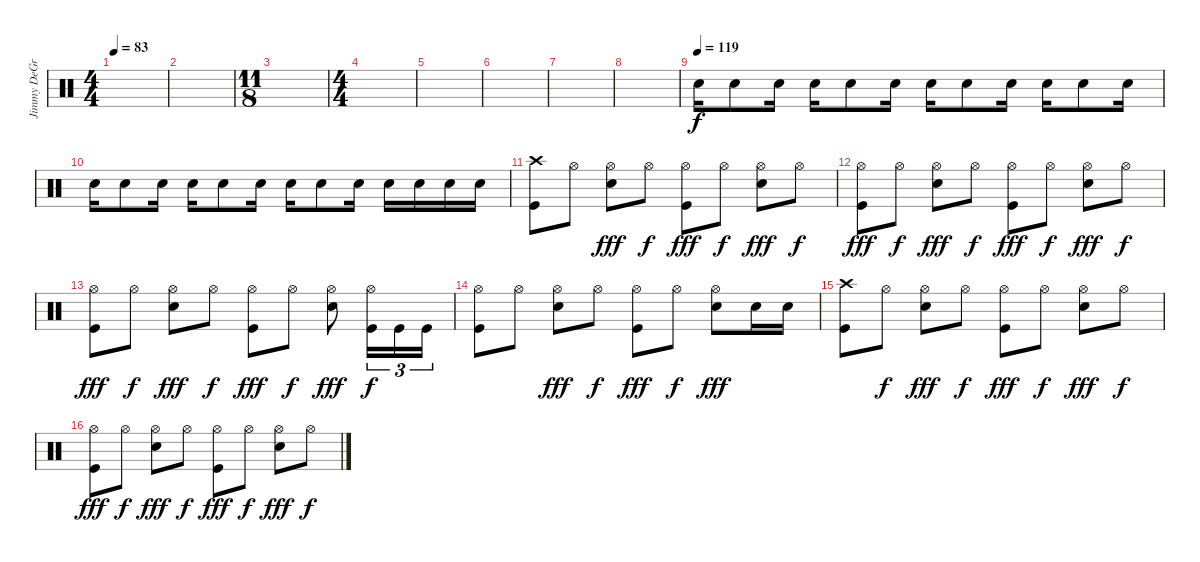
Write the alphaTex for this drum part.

\track ("Jimmy DeGrasso" "Jimmy DeGr") {instrument percussion}
\staff {score}
\articulation defaults
\ts (4 4)
\tempo 83
\clef neutral
\ks c
|
|
\ts (11 8)
|
\ts (4 4)
|
|
|
|
|
\tempo (119)
"Electric Snare (hit)".16 "Electric Snare (hit)".8 "Electric Snare (hit)".16 "Electric Snare (hit)".16 "Electric Snare (hit)".8 "Electric Snare (hit)".16 "Electric Snare (hit)".16 "Electric Snare (hit)".8 "Electric Snare (hit)".16 "Electric Snare (hit)".16 "Electric Snare (hit)".8 "Electric Snare (hit)".16 |
"Electric Snare (hit)".16 "Electric Snare (hit)".8 "Electric Snare (hit)".16 "Electric Snare (hit)".16 "Electric Snare (hit)".8 "Electric Snare (hit)".16 "Electric Snare (hit)".16 "Electric Snare (hit)".8 "Electric Snare (hit)".16 "Electric Snare (hit)".16 "Electric Snare (hit)".16 "Electric Snare (hit)".16 "Electric Snare (hit)".16 |
("Kick (hit)" "Crash high (hit)").8 "Hi-Hat (open)".8{dy f} ("Electric Snare (hit)" "Hi-Hat (open)").8{dy fff} "Hi-Hat (open)".8{dy f} ("Kick (hit)" "Hi-Hat (open)").8{dy fff} "Hi-Hat (open)".8{dy f} ("Electric Snare (hit)" "Hi-Hat (open)").8{dy fff} "Hi-Hat (open)".8{dy f} |
("Kick (hit)" "Hi-Hat (open)").8{dy fff} "Hi-Hat (open)".8{dy f} ("Electric Snare (hit)" "Hi-Hat (open)").8{dy fff} "Hi-Hat (open)".8{dy f} ("Kick (hit)" "Hi-Hat (open)").8{dy fff} "Hi-Hat (open)".8{dy f} ("Electric Snare (hit)" "Hi-Hat (open)").8{dy fff} "Hi-Hat (open)".8{dy f} |
("Kick (hit)" "Hi-Hat (open)").8{dy fff} "Hi-Hat (open)".8{dy f} ("Electric Snare (hit)" "Hi-Hat (open)").8{dy fff} "Hi-Hat (open)".8{dy f} ("Kick (hit)" "Hi-Hat (open)").8{dy fff} "Hi-Hat (open)".8{dy f} ("Electric Snare (hit)" "Hi-Hat (open)").8{dy fff} ("Kick (hit)" "Hi-Hat (open)").16{tu (3 2) dy f} "Kick (hit)".16{tu (3 2)} "Kick (hit)".16{tu (3 2)} |
("Kick (hit)" "Hi-Hat (open)").8 "Hi-Hat (open)".8 ("Electric Snare (hit)" "Hi-Hat (open)").8{dy fff} "Hi-Hat (open)".8{dy f} ("Kick (hit)" "Hi-Hat (open)").8{dy fff} "Hi-Hat (open)".8{dy f} ("Electric Snare (hit)" "Hi-Hat (open)").8{dy fff} "Electric Snare (hit)".16 "Electric Snare (hit)".16 |
("Kick (hit)" "Crash high (hit)").8 "Hi-Hat (open)".8{dy f} ("Electric Snare (hit)" "Hi-Hat (open)").8{dy fff} "Hi-Hat (open)".8{dy f} ("Kick (hit)" "Hi-Hat (open)").8{dy fff} "Hi-Hat (open)".8{dy f} ("Electric Snare (hit)" "Hi-Hat (open)").8{dy fff} "Hi-Hat (open)".8{dy f} |
("Kick (hit)" "Hi-Hat (open)").8{dy fff} "Hi-Hat (open)".8{dy f} ("Electric Snare (hit)" "Hi-Hat (open)").8{dy fff} "Hi-Hat (open)".8{dy f} ("Kick (hit)" "Hi-Hat (open)").8{dy fff} "Hi-Hat (open)".8{dy f} ("Electric Snare (hit)" "Hi-Hat (open)").8{dy fff} "Hi-Hat (open)".8{dy f}
